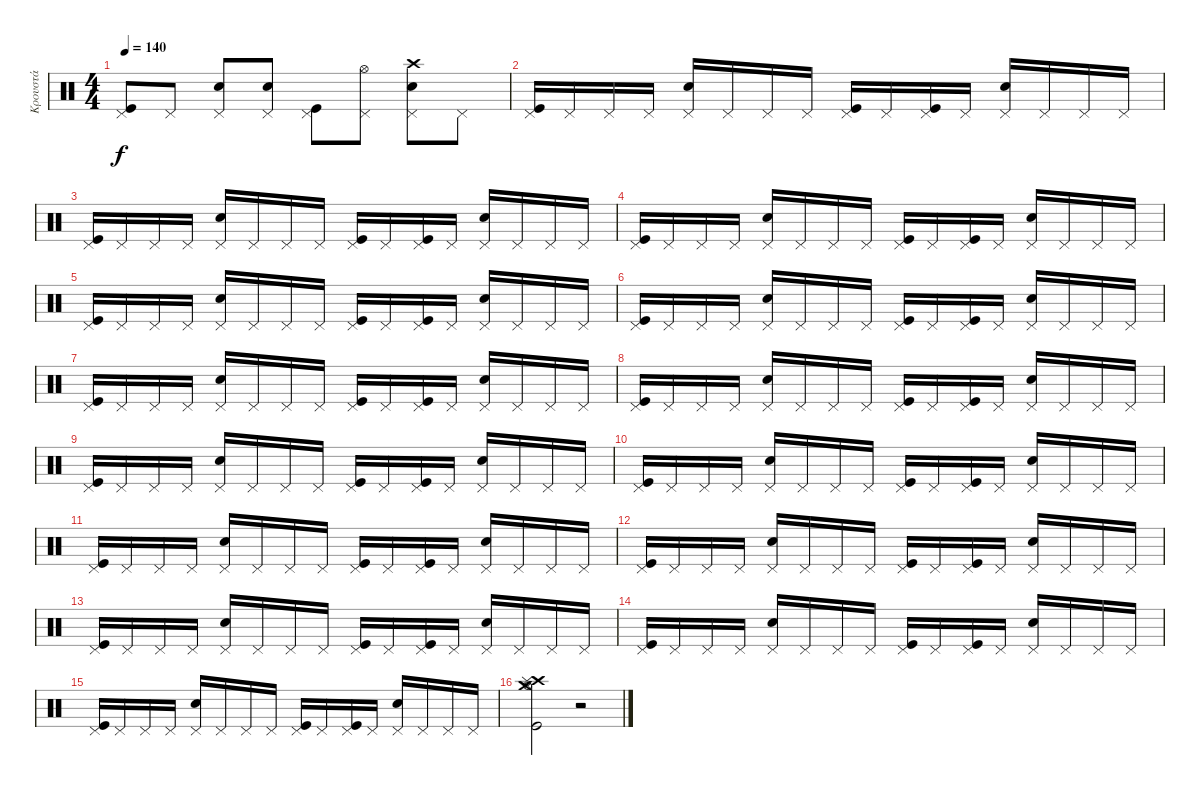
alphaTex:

\track ("Κρουστά" "Κρουστά") {instrument percussion}
\staff {score}
\articulation defaults
\ts (4 4)
\tempo 140
\clef neutral
\ks c
("Pedal Hi-Hat (hit)" "Kick (hit)").8{dy f} "Pedal Hi-Hat (hit)".8 ("Pedal Hi-Hat (hit)" "Snare (hit) 2").8 ("Pedal Hi-Hat (hit)" "Snare (hit) 2").8 ("Pedal Hi-Hat (hit)" "Kick (hit)").8 ("Pedal Hi-Hat (hit)" "Hi-Hat (open)").8 ("Pedal Hi-Hat (hit)" "Snare (hit) 2" "Crash high (hit)").8 "Pedal Hi-Hat (hit)".8 |
("Pedal Hi-Hat (hit)" "Kick (hit)").16 "Pedal Hi-Hat (hit)".16 "Pedal Hi-Hat (hit)".16 "Pedal Hi-Hat (hit)".16 ("Pedal Hi-Hat (hit)" "Snare (hit) 2").16 "Pedal Hi-Hat (hit)".16 "Pedal Hi-Hat (hit)".16 "Pedal Hi-Hat (hit)".16 ("Pedal Hi-Hat (hit)" "Kick (hit)").16 "Pedal Hi-Hat (hit)".16 ("Pedal Hi-Hat (hit)" "Kick (hit)").16 "Pedal Hi-Hat (hit)".16 ("Pedal Hi-Hat (hit)" "Snare (hit) 2").16 "Pedal Hi-Hat (hit)".16 "Pedal Hi-Hat (hit)".16 "Pedal Hi-Hat (hit)".16 |
("Pedal Hi-Hat (hit)" "Kick (hit)").16 "Pedal Hi-Hat (hit)".16 "Pedal Hi-Hat (hit)".16 "Pedal Hi-Hat (hit)".16 ("Pedal Hi-Hat (hit)" "Snare (hit) 2").16 "Pedal Hi-Hat (hit)".16 "Pedal Hi-Hat (hit)".16 "Pedal Hi-Hat (hit)".16 ("Pedal Hi-Hat (hit)" "Kick (hit)").16 "Pedal Hi-Hat (hit)".16 ("Pedal Hi-Hat (hit)" "Kick (hit)").16 "Pedal Hi-Hat (hit)".16 ("Pedal Hi-Hat (hit)" "Snare (hit) 2").16 "Pedal Hi-Hat (hit)".16 "Pedal Hi-Hat (hit)".16 "Pedal Hi-Hat (hit)".16 |
("Pedal Hi-Hat (hit)" "Kick (hit)").16 "Pedal Hi-Hat (hit)".16 "Pedal Hi-Hat (hit)".16 "Pedal Hi-Hat (hit)".16 ("Pedal Hi-Hat (hit)" "Snare (hit) 2").16 "Pedal Hi-Hat (hit)".16 "Pedal Hi-Hat (hit)".16 "Pedal Hi-Hat (hit)".16 ("Pedal Hi-Hat (hit)" "Kick (hit)").16 "Pedal Hi-Hat (hit)".16 ("Pedal Hi-Hat (hit)" "Kick (hit)").16 "Pedal Hi-Hat (hit)".16 ("Pedal Hi-Hat (hit)" "Snare (hit) 2").16 "Pedal Hi-Hat (hit)".16 "Pedal Hi-Hat (hit)".16 "Pedal Hi-Hat (hit)".16 |
("Pedal Hi-Hat (hit)" "Kick (hit)").16 "Pedal Hi-Hat (hit)".16 "Pedal Hi-Hat (hit)".16 "Pedal Hi-Hat (hit)".16 ("Pedal Hi-Hat (hit)" "Snare (hit) 2").16 "Pedal Hi-Hat (hit)".16 "Pedal Hi-Hat (hit)".16 "Pedal Hi-Hat (hit)".16 ("Pedal Hi-Hat (hit)" "Kick (hit)").16 "Pedal Hi-Hat (hit)".16 ("Pedal Hi-Hat (hit)" "Kick (hit)").16 "Pedal Hi-Hat (hit)".16 ("Pedal Hi-Hat (hit)" "Snare (hit) 2").16 "Pedal Hi-Hat (hit)".16 "Pedal Hi-Hat (hit)".16 "Pedal Hi-Hat (hit)".16 |
("Pedal Hi-Hat (hit)" "Kick (hit)").16 "Pedal Hi-Hat (hit)".16 "Pedal Hi-Hat (hit)".16 "Pedal Hi-Hat (hit)".16 ("Pedal Hi-Hat (hit)" "Snare (hit) 2").16 "Pedal Hi-Hat (hit)".16 "Pedal Hi-Hat (hit)".16 "Pedal Hi-Hat (hit)".16 ("Pedal Hi-Hat (hit)" "Kick (hit)").16 "Pedal Hi-Hat (hit)".16 ("Pedal Hi-Hat (hit)" "Kick (hit)").16 "Pedal Hi-Hat (hit)".16 ("Pedal Hi-Hat (hit)" "Snare (hit) 2").16 "Pedal Hi-Hat (hit)".16 "Pedal Hi-Hat (hit)".16 "Pedal Hi-Hat (hit)".16 |
("Pedal Hi-Hat (hit)" "Kick (hit)").16 "Pedal Hi-Hat (hit)".16 "Pedal Hi-Hat (hit)".16 "Pedal Hi-Hat (hit)".16 ("Pedal Hi-Hat (hit)" "Snare (hit) 2").16 "Pedal Hi-Hat (hit)".16 "Pedal Hi-Hat (hit)".16 "Pedal Hi-Hat (hit)".16 ("Pedal Hi-Hat (hit)" "Kick (hit)").16 "Pedal Hi-Hat (hit)".16 ("Pedal Hi-Hat (hit)" "Kick (hit)").16 "Pedal Hi-Hat (hit)".16 ("Pedal Hi-Hat (hit)" "Snare (hit) 2").16 "Pedal Hi-Hat (hit)".16 "Pedal Hi-Hat (hit)".16 "Pedal Hi-Hat (hit)".16 |
("Pedal Hi-Hat (hit)" "Kick (hit)").16 "Pedal Hi-Hat (hit)".16 "Pedal Hi-Hat (hit)".16 "Pedal Hi-Hat (hit)".16 ("Pedal Hi-Hat (hit)" "Snare (hit) 2").16 "Pedal Hi-Hat (hit)".16 "Pedal Hi-Hat (hit)".16 "Pedal Hi-Hat (hit)".16 ("Pedal Hi-Hat (hit)" "Kick (hit)").16 "Pedal Hi-Hat (hit)".16 ("Pedal Hi-Hat (hit)" "Kick (hit)").16 "Pedal Hi-Hat (hit)".16 ("Pedal Hi-Hat (hit)" "Snare (hit) 2").16 "Pedal Hi-Hat (hit)".16 "Pedal Hi-Hat (hit)".16 "Pedal Hi-Hat (hit)".16 |
("Pedal Hi-Hat (hit)" "Kick (hit)").16 "Pedal Hi-Hat (hit)".16 "Pedal Hi-Hat (hit)".16 "Pedal Hi-Hat (hit)".16 ("Pedal Hi-Hat (hit)" "Snare (hit) 2").16 "Pedal Hi-Hat (hit)".16 "Pedal Hi-Hat (hit)".16 "Pedal Hi-Hat (hit)".16 ("Pedal Hi-Hat (hit)" "Kick (hit)").16 "Pedal Hi-Hat (hit)".16 ("Pedal Hi-Hat (hit)" "Kick (hit)").16 "Pedal Hi-Hat (hit)".16 ("Pedal Hi-Hat (hit)" "Snare (hit) 2").16 "Pedal Hi-Hat (hit)".16 "Pedal Hi-Hat (hit)".16 "Pedal Hi-Hat (hit)".16 |
("Pedal Hi-Hat (hit)" "Kick (hit)").16 "Pedal Hi-Hat (hit)".16 "Pedal Hi-Hat (hit)".16 "Pedal Hi-Hat (hit)".16 ("Pedal Hi-Hat (hit)" "Snare (hit) 2").16 "Pedal Hi-Hat (hit)".16 "Pedal Hi-Hat (hit)".16 "Pedal Hi-Hat (hit)".16 ("Pedal Hi-Hat (hit)" "Kick (hit)").16 "Pedal Hi-Hat (hit)".16 ("Pedal Hi-Hat (hit)" "Kick (hit)").16 "Pedal Hi-Hat (hit)".16 ("Pedal Hi-Hat (hit)" "Snare (hit) 2").16 "Pedal Hi-Hat (hit)".16 "Pedal Hi-Hat (hit)".16 "Pedal Hi-Hat (hit)".16 |
("Pedal Hi-Hat (hit)" "Kick (hit)").16 "Pedal Hi-Hat (hit)".16 "Pedal Hi-Hat (hit)".16 "Pedal Hi-Hat (hit)".16 ("Pedal Hi-Hat (hit)" "Snare (hit) 2").16 "Pedal Hi-Hat (hit)".16 "Pedal Hi-Hat (hit)".16 "Pedal Hi-Hat (hit)".16 ("Pedal Hi-Hat (hit)" "Kick (hit)").16 "Pedal Hi-Hat (hit)".16 ("Pedal Hi-Hat (hit)" "Kick (hit)").16 "Pedal Hi-Hat (hit)".16 ("Pedal Hi-Hat (hit)" "Snare (hit) 2").16 "Pedal Hi-Hat (hit)".16 "Pedal Hi-Hat (hit)".16 "Pedal Hi-Hat (hit)".16 |
("Pedal Hi-Hat (hit)" "Kick (hit)").16 "Pedal Hi-Hat (hit)".16 "Pedal Hi-Hat (hit)".16 "Pedal Hi-Hat (hit)".16 ("Pedal Hi-Hat (hit)" "Snare (hit) 2").16 "Pedal Hi-Hat (hit)".16 "Pedal Hi-Hat (hit)".16 "Pedal Hi-Hat (hit)".16 ("Pedal Hi-Hat (hit)" "Kick (hit)").16 "Pedal Hi-Hat (hit)".16 ("Pedal Hi-Hat (hit)" "Kick (hit)").16 "Pedal Hi-Hat (hit)".16 ("Pedal Hi-Hat (hit)" "Snare (hit) 2").16 "Pedal Hi-Hat (hit)".16 "Pedal Hi-Hat (hit)".16 "Pedal Hi-Hat (hit)".16 |
("Pedal Hi-Hat (hit)" "Kick (hit)").16 "Pedal Hi-Hat (hit)".16 "Pedal Hi-Hat (hit)".16 "Pedal Hi-Hat (hit)".16 ("Pedal Hi-Hat (hit)" "Snare (hit) 2").16 "Pedal Hi-Hat (hit)".16 "Pedal Hi-Hat (hit)".16 "Pedal Hi-Hat (hit)".16 ("Pedal Hi-Hat (hit)" "Kick (hit)").16 "Pedal Hi-Hat (hit)".16 ("Pedal Hi-Hat (hit)" "Kick (hit)").16 "Pedal Hi-Hat (hit)".16 ("Pedal Hi-Hat (hit)" "Snare (hit) 2").16 "Pedal Hi-Hat (hit)".16 "Pedal Hi-Hat (hit)".16 "Pedal Hi-Hat (hit)".16 |
("Pedal Hi-Hat (hit)" "Kick (hit)").16 "Pedal Hi-Hat (hit)".16 "Pedal Hi-Hat (hit)".16 "Pedal Hi-Hat (hit)".16 ("Pedal Hi-Hat (hit)" "Snare (hit) 2").16 "Pedal Hi-Hat (hit)".16 "Pedal Hi-Hat (hit)".16 "Pedal Hi-Hat (hit)".16 ("Pedal Hi-Hat (hit)" "Kick (hit)").16 "Pedal Hi-Hat (hit)".16 ("Pedal Hi-Hat (hit)" "Kick (hit)").16 "Pedal Hi-Hat (hit)".16 ("Pedal Hi-Hat (hit)" "Snare (hit) 2").16 "Pedal Hi-Hat (hit)".16 "Pedal Hi-Hat (hit)".16 "Pedal Hi-Hat (hit)".16 |
("Pedal Hi-Hat (hit)" "Kick (hit)").16 "Pedal Hi-Hat (hit)".16 "Pedal Hi-Hat (hit)".16 "Pedal Hi-Hat (hit)".16 ("Pedal Hi-Hat (hit)" "Snare (hit) 2").16 "Pedal Hi-Hat (hit)".16 "Pedal Hi-Hat (hit)".16 "Pedal Hi-Hat (hit)".16 ("Pedal Hi-Hat (hit)" "Kick (hit)").16 "Pedal Hi-Hat (hit)".16 ("Pedal Hi-Hat (hit)" "Kick (hit)").16 "Pedal Hi-Hat (hit)".16 ("Pedal Hi-Hat (hit)" "Snare (hit) 2").16 "Pedal Hi-Hat (hit)".16 "Pedal Hi-Hat (hit)".16 "Pedal Hi-Hat (hit)".16 |
("Crash high (hit)" "Hi-Hat (open)" "Crash medium (hit)" "Splash (hit)" "Kick (hit)").2 r.2
